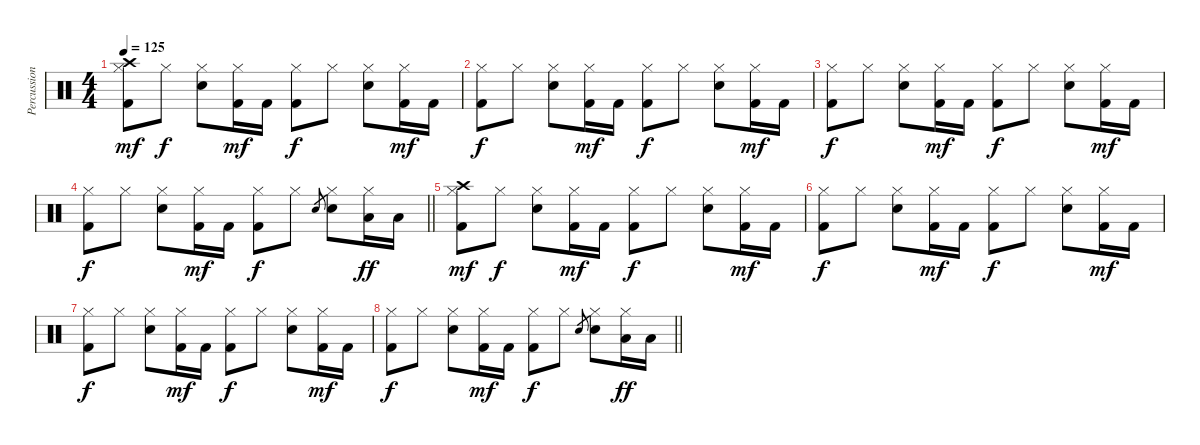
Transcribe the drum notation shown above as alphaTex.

\track ("Percussion" "Percussion") {instrument percussion}
\staff {score}
\articulation defaults
\ts (4 4)
\tempo 125
\clef neutral
\ks c
("Hi-Hat (closed)" "Kick (hit) 2" "Crash high (hit)").8{dy mf} "Hi-Hat (closed)".8{dy f} ("Hi-Hat (closed)" "Electric Snare (hit)").8 ("Hi-Hat (closed)" "Kick (hit) 2").16{dy mf} "Kick (hit) 2".16 ("Hi-Hat (closed)" "Kick (hit) 2").8{dy f} "Hi-Hat (closed)".8 ("Hi-Hat (closed)" "Electric Snare (hit)").8 ("Hi-Hat (closed)" "Kick (hit) 2").16{dy mf} "Kick (hit) 2".16 |
("Hi-Hat (closed)" "Kick (hit) 2").8{dy f} "Hi-Hat (closed)".8 ("Hi-Hat (closed)" "Electric Snare (hit)").8 ("Hi-Hat (closed)" "Kick (hit) 2").16{dy mf} "Kick (hit) 2".16 ("Hi-Hat (closed)" "Kick (hit) 2").8{dy f} "Hi-Hat (closed)".8 ("Hi-Hat (closed)" "Electric Snare (hit)").8 ("Hi-Hat (closed)" "Kick (hit) 2").16{dy mf} "Kick (hit) 2".16 |
("Hi-Hat (closed)" "Kick (hit) 2").8{dy f} "Hi-Hat (closed)".8 ("Hi-Hat (closed)" "Electric Snare (hit)").8 ("Hi-Hat (closed)" "Kick (hit) 2").16{dy mf} "Kick (hit) 2".16 ("Hi-Hat (closed)" "Kick (hit) 2").8{dy f} "Hi-Hat (closed)".8 ("Hi-Hat (closed)" "Electric Snare (hit)").8 ("Hi-Hat (closed)" "Kick (hit) 2").16{dy mf} "Kick (hit) 2".16 |
\barLineRight lightlight
("Hi-Hat (closed)" "Kick (hit) 2").8{dy f} "Hi-Hat (closed)".8 ("Hi-Hat (closed)" "Electric Snare (hit)").8 ("Hi-Hat (closed)" "Kick (hit) 2").16{dy mf} "Kick (hit) 2".16 ("Hi-Hat (closed)" "Kick (hit) 2").8{dy f} "Hi-Hat (closed)".8 "Electric Snare (hit)".8{gr} ("Hi-Hat (closed)" "Electric Snare (hit)").8 ("Hi-Hat (closed)" "Low Tom (hit)").16{dy ff} "Low Tom (hit)".16 |
("Hi-Hat (closed)" "Kick (hit) 2" "Crash high (hit)").8{dy mf} "Hi-Hat (closed)".8{dy f} ("Hi-Hat (closed)" "Electric Snare (hit)").8 ("Hi-Hat (closed)" "Kick (hit) 2").16{dy mf} "Kick (hit) 2".16 ("Hi-Hat (closed)" "Kick (hit) 2").8{dy f} "Hi-Hat (closed)".8 ("Hi-Hat (closed)" "Electric Snare (hit)").8 ("Hi-Hat (closed)" "Kick (hit) 2").16{dy mf} "Kick (hit) 2".16 |
("Hi-Hat (closed)" "Kick (hit) 2").8{dy f} "Hi-Hat (closed)".8 ("Hi-Hat (closed)" "Electric Snare (hit)").8 ("Hi-Hat (closed)" "Kick (hit) 2").16{dy mf} "Kick (hit) 2".16 ("Hi-Hat (closed)" "Kick (hit) 2").8{dy f} "Hi-Hat (closed)".8 ("Hi-Hat (closed)" "Electric Snare (hit)").8 ("Hi-Hat (closed)" "Kick (hit) 2").16{dy mf} "Kick (hit) 2".16 |
("Hi-Hat (closed)" "Kick (hit) 2").8{dy f} "Hi-Hat (closed)".8 ("Hi-Hat (closed)" "Electric Snare (hit)").8 ("Hi-Hat (closed)" "Kick (hit) 2").16{dy mf} "Kick (hit) 2".16 ("Hi-Hat (closed)" "Kick (hit) 2").8{dy f} "Hi-Hat (closed)".8 ("Hi-Hat (closed)" "Electric Snare (hit)").8 ("Hi-Hat (closed)" "Kick (hit) 2").16{dy mf} "Kick (hit) 2".16 |
\barLineRight lightlight
("Hi-Hat (closed)" "Kick (hit) 2").8{dy f} "Hi-Hat (closed)".8 ("Hi-Hat (closed)" "Electric Snare (hit)").8 ("Hi-Hat (closed)" "Kick (hit) 2").16{dy mf} "Kick (hit) 2".16 ("Hi-Hat (closed)" "Kick (hit) 2").8{dy f} "Hi-Hat (closed)".8 "Electric Snare (hit)".8{gr} ("Hi-Hat (closed)" "Electric Snare (hit)").8 ("Hi-Hat (closed)" "Low Tom (hit)").16{dy ff} "Low Tom (hit)".16
